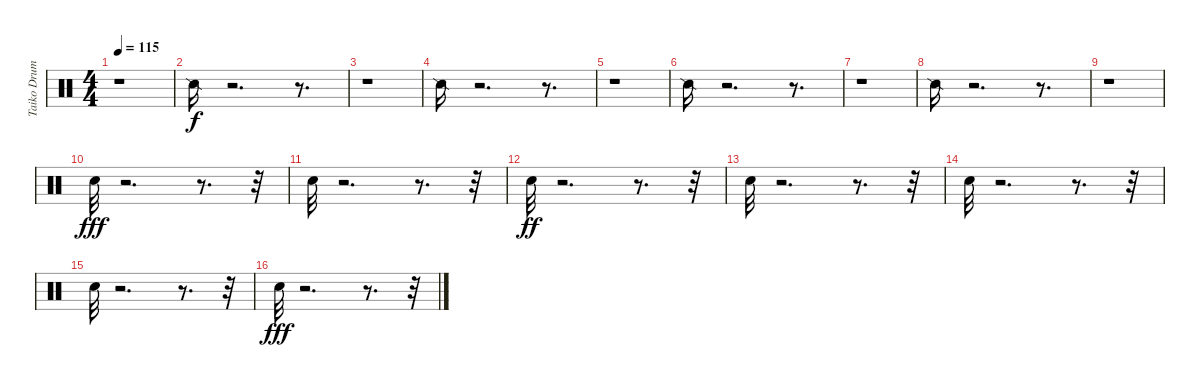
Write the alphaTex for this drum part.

\track ("Taiko Drums" "Taiko Drum") {instrument percussion}
\staff {score}
\articulation defaults
\ts (4 4)
\tempo 115
\clef neutral
\ks c
r.1{dy f} |
"Snare (side stick) 2".16 r.2{d} r.8{d} |
r.1 |
"Snare (side stick) 2".16 r.2{d} r.8{d} |
r.1 |
"Snare (side stick) 2".16 r.2{d} r.8{d} |
r.1 |
"Snare (side stick) 2".16 r.2{d} r.8{d} |
r.1 |
"Snare (hit)".32{dy fff} r.2{d} r.8{d} r.32 |
"Snare (hit)".32 r.2{d} r.8{d} r.32 |
"Snare (hit)".32{dy ff} r.2{d} r.8{d} r.32 |
"Snare (hit)".32 r.2{d} r.8{d} r.32 |
"Snare (hit)".32 r.2{d} r.8{d} r.32 |
"Snare (hit)".32 r.2{d} r.8{d} r.32 |
"Snare (hit)".32{dy fff} r.2{d} r.8{d} r.32
